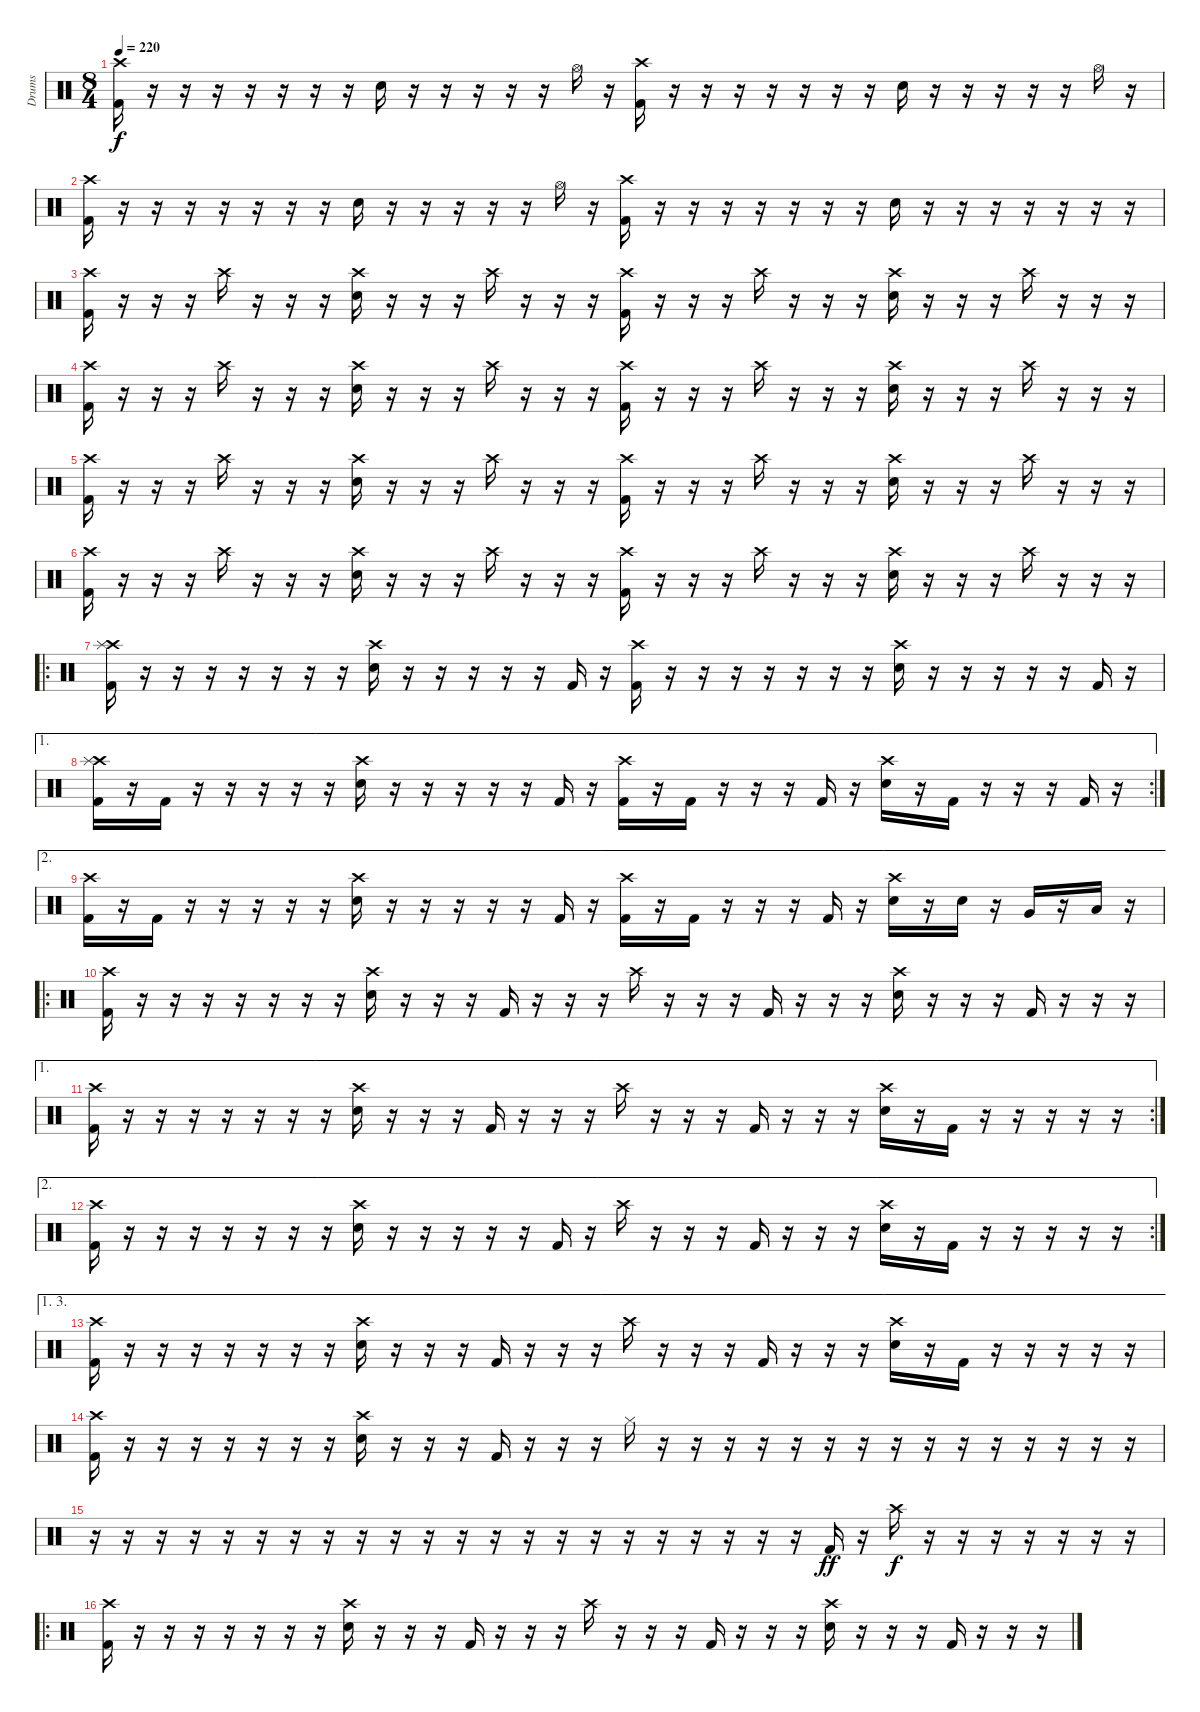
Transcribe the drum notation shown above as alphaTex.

\track ("Drums" "Drums") {instrument percussion}
\staff {score}
\articulation defaults
\ts (8 4)
\tempo 220
\clef neutral
\ks c
("Crash high (hit)" "Kick (hit) 2").16{dy f} r.16 r.16 r.16 r.16 r.16 r.16 r.16 "Snare (hit) 2".16 r.16 r.16 r.16 r.16 r.16 "Hi-Hat (open)".16 r.16 ("Crash high (hit)" "Kick (hit) 2").16 r.16 r.16 r.16 r.16 r.16 r.16 r.16 "Snare (hit) 2".16 r.16 r.16 r.16 r.16 r.16 "Hi-Hat (open)".16 r.16 |
("Crash high (hit)" "Kick (hit) 2").16 r.16 r.16 r.16 r.16 r.16 r.16 r.16 "Snare (hit) 2".16 r.16 r.16 r.16 r.16 r.16 "Hi-Hat (open)".16 r.16 ("Crash high (hit)" "Kick (hit) 2").16 r.16 r.16 r.16 r.16 r.16 r.16 r.16 "Snare (hit) 2".16 r.16 r.16 r.16 r.16 r.16 r.16 r.16 |
("Crash high (hit)" "Kick (hit) 2").16 r.16 r.16 r.16 "Crash high (hit)".16 r.16 r.16 r.16 ("Crash high (hit)" "Snare (hit) 2").16 r.16 r.16 r.16 "Crash high (hit)".16 r.16 r.16 r.16 ("Crash high (hit)" "Kick (hit) 2").16 r.16 r.16 r.16 "Crash high (hit)".16 r.16 r.16 r.16 ("Crash high (hit)" "Snare (hit) 2").16 r.16 r.16 r.16 "Crash high (hit)".16 r.16 r.16 r.16 |
("Crash high (hit)" "Kick (hit) 2").16 r.16 r.16 r.16 "Crash high (hit)".16 r.16 r.16 r.16 ("Crash high (hit)" "Snare (hit) 2").16 r.16 r.16 r.16 "Crash high (hit)".16 r.16 r.16 r.16 ("Crash high (hit)" "Kick (hit) 2").16 r.16 r.16 r.16 "Crash high (hit)".16 r.16 r.16 r.16 ("Crash high (hit)" "Snare (hit) 2").16 r.16 r.16 r.16 "Crash high (hit)".16 r.16 r.16 r.16 |
("Crash high (hit)" "Kick (hit) 2").16 r.16 r.16 r.16 "Crash high (hit)".16 r.16 r.16 r.16 ("Crash high (hit)" "Snare (hit) 2").16 r.16 r.16 r.16 "Crash high (hit)".16 r.16 r.16 r.16 ("Crash high (hit)" "Kick (hit) 2").16 r.16 r.16 r.16 "Crash high (hit)".16 r.16 r.16 r.16 ("Crash high (hit)" "Snare (hit) 2").16 r.16 r.16 r.16 "Crash high (hit)".16 r.16 r.16 r.16 |
("Crash high (hit)" "Kick (hit) 2").16 r.16 r.16 r.16 "Crash high (hit)".16 r.16 r.16 r.16 ("Crash high (hit)" "Snare (hit) 2").16 r.16 r.16 r.16 "Crash high (hit)".16 r.16 r.16 r.16 ("Crash high (hit)" "Kick (hit) 2").16 r.16 r.16 r.16 "Crash high (hit)".16 r.16 r.16 r.16 ("Crash high (hit)" "Snare (hit) 2").16 r.16 r.16 r.16 "Crash high (hit)".16 r.16 r.16 r.16 |
\ro
("Crash high (hit)" "Splash (hit)" "Kick (hit) 2").16 r.16 r.16 r.16 r.16 r.16 r.16 r.16 ("Crash high (hit)" "Snare (hit) 2").16 r.16 r.16 r.16 r.16 r.16 "Kick (hit) 2".16 r.16 ("Crash high (hit)" "Kick (hit) 2").16 r.16 r.16 r.16 r.16 r.16 r.16 r.16 ("Crash high (hit)" "Snare (hit) 2").16 r.16 r.16 r.16 r.16 r.16 "Kick (hit) 2".16 r.16 |
\ae 1
\rc 2
("Crash high (hit)" "Splash (hit)" "Kick (hit) 2").16 r.16 "Kick (hit) 2".16 r.16 r.16 r.16 r.16 r.16 ("Crash high (hit)" "Snare (hit) 2").16 r.16 r.16 r.16 r.16 r.16 "Kick (hit) 2".16 r.16 ("Crash high (hit)" "Kick (hit) 2").16 r.16 "Kick (hit) 2".16 r.16 r.16 r.16 "Kick (hit) 2".16 r.16 ("Crash high (hit)" "Snare (hit) 2").16 r.16 "Kick (hit) 2".16 r.16 r.16 r.16 "Kick (hit) 2".16 r.16 |
\ae 2
("Crash high (hit)" "Kick (hit) 2").16 r.16 "Kick (hit) 2".16 r.16 r.16 r.16 r.16 r.16 ("Crash high (hit)" "Snare (hit) 2").16 r.16 r.16 r.16 r.16 r.16 "Kick (hit) 2".16 r.16 ("Crash high (hit)" "Kick (hit) 2").16 r.16 "Kick (hit) 2".16 r.16 r.16 r.16 "Kick (hit) 2".16 r.16 ("Crash high (hit)" "Snare (hit) 2").16 r.16 "Snare (hit) 2".16 r.16 "Very Low Tom (hit)".16 r.16 "Low Floor Tom (hit)".16 r.16 |
\ro
("Crash high (hit)" "Kick (hit) 2").16 r.16 r.16 r.16 r.16 r.16 r.16 r.16 ("Crash high (hit)" "Snare (hit) 2").16 r.16 r.16 r.16 "Kick (hit) 2".16 r.16 r.16 r.16 "Crash high (hit)".16 r.16 r.16 r.16 "Kick (hit) 2".16 r.16 r.16 r.16 ("Crash high (hit)" "Snare (hit) 2").16 r.16 r.16 r.16 "Kick (hit) 2".16 r.16 r.16 r.16 |
\ae 1
\rc 2
("Crash high (hit)" "Kick (hit) 2").16 r.16 r.16 r.16 r.16 r.16 r.16 r.16 ("Crash high (hit)" "Snare (hit) 2").16 r.16 r.16 r.16 "Kick (hit) 2".16 r.16 r.16 r.16 "Crash high (hit)".16 r.16 r.16 r.16 "Kick (hit) 2".16 r.16 r.16 r.16 ("Crash high (hit)" "Snare (hit) 2").16 r.16 "Kick (hit) 2".16 r.16 r.16 r.16 r.16 r.16 |
\ae 2
\rc 2
("Crash high (hit)" "Kick (hit) 2").16 r.16 r.16 r.16 r.16 r.16 r.16 r.16 ("Crash high (hit)" "Snare (hit) 2").16 r.16 r.16 r.16 r.16 r.16 "Kick (hit) 2".16 r.16 "Crash high (hit)".16 r.16 r.16 r.16 "Kick (hit) 2".16 r.16 r.16 r.16 ("Crash high (hit)" "Snare (hit) 2").16 r.16 "Kick (hit) 2".16 r.16 r.16 r.16 r.16 r.16 |
\ae (1 3)
("Crash high (hit)" "Kick (hit) 2").16 r.16 r.16 r.16 r.16 r.16 r.16 r.16 ("Crash high (hit)" "Snare (hit) 2").16 r.16 r.16 r.16 "Kick (hit) 2".16 r.16 r.16 r.16 "Crash high (hit)".16 r.16 r.16 r.16 "Kick (hit) 2".16 r.16 r.16 r.16 ("Crash high (hit)" "Snare (hit) 2").16 r.16 "Kick (hit) 2".16 r.16 r.16 r.16 r.16 r.16 |
("Crash high (hit)" "Kick (hit) 2").16 r.16 r.16 r.16 r.16 r.16 r.16 r.16 ("Crash high (hit)" "Snare (hit) 2").16 r.16 r.16 r.16 "Kick (hit) 2".16 r.16 r.16 r.16 "Hi-Hat (closed)".16 r.16 r.16 r.16 r.16 r.16 r.16 r.16 r.16 r.16 r.16 r.16 r.16 r.16 r.16 r.16 |
r.16 r.16 r.16 r.16 r.16 r.16 r.16 r.16 r.16 r.16 r.16 r.16 r.16 r.16 r.16 r.16 r.16 r.16 r.16 r.16 r.16 r.16 "Kick (hit) 2".16{dy ff} r.16 "Crash high (hit)".16{dy f} r.16 r.16 r.16 r.16 r.16 r.16 r.16 |
\ro
("Crash high (hit)" "Kick (hit) 2").16 r.16 r.16 r.16 r.16 r.16 r.16 r.16 ("Crash high (hit)" "Snare (hit) 2").16 r.16 r.16 r.16 "Kick (hit) 2".16 r.16 r.16 r.16 "Crash high (hit)".16 r.16 r.16 r.16 "Kick (hit) 2".16 r.16 r.16 r.16 ("Crash high (hit)" "Snare (hit) 2").16 r.16 r.16 r.16 "Kick (hit) 2".16 r.16 r.16 r.16
